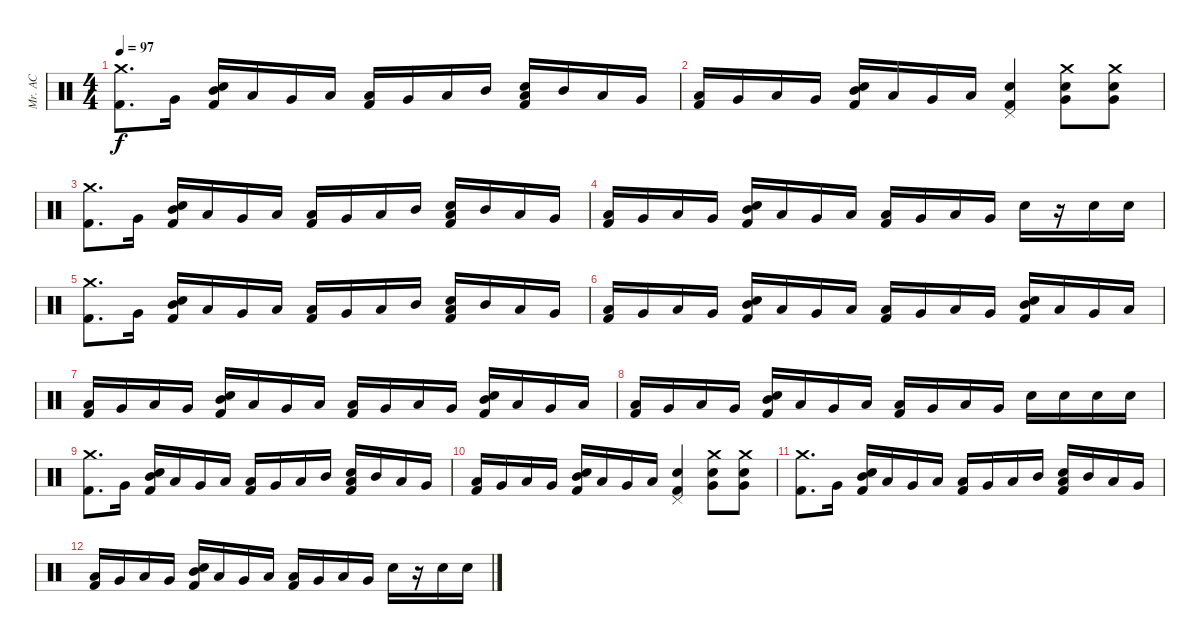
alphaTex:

\track ("Mr. AC" "Mr. AC") {instrument percussion}
\staff {score}
\articulation defaults
\ts (4 4)
\tempo 97
\clef neutral
\ks c
("Crash medium (hit)" "Kick (hit) 2").8{d dy f} "Very Low Tom (hit)".16 ("Snare (hit) 2" "Mid Tom (hit)" "Kick (hit) 2").16 "Low Floor Tom (hit)".16 "Very Low Tom (hit)".16 "Low Tom (hit)".16 ("Low Floor Tom (hit)" "Kick (hit) 2").16 "Very Low Tom (hit)".16 "Low Tom (hit)".16 "Mid Tom (hit)".16 ("Snare (hit) 2" "Low Tom (hit)" "Kick (hit) 2").16 "Mid Tom (hit)".16 "Low Tom (hit)".16 "Very Low Tom (hit)".16 |
("Low Floor Tom (hit)" "Kick (hit) 2").16 "Very Low Tom (hit)".16 "Low Tom (hit)".16 "Very Low Tom (hit)".16 ("Snare (hit) 2" "Mid Tom (hit)" "Kick (hit) 2").16 "Low Tom (hit)".16 "Very Low Tom (hit)".16 "Low Tom (hit)".16 ("Pedal Hi-Hat (hit)" "Snare (hit) 2" "Kick (hit) 2").4 ("Crash medium (hit)" "Very Low Tom (hit)" "Snare (hit) 2").8 ("Crash medium (hit)" "Very Low Tom (hit)" "Snare (hit) 2").8 |
("Crash medium (hit)" "Kick (hit) 2").8{d} "Very Low Tom (hit)".16 ("Snare (hit) 2" "Mid Tom (hit)" "Kick (hit) 2").16 "Low Floor Tom (hit)".16 "Very Low Tom (hit)".16 "Low Tom (hit)".16 ("Low Floor Tom (hit)" "Kick (hit) 2").16 "Very Low Tom (hit)".16 "Low Tom (hit)".16 "Mid Tom (hit)".16 ("Snare (hit) 2" "Low Tom (hit)" "Kick (hit) 2").16 "Mid Tom (hit)".16 "Low Tom (hit)".16 "Very Low Tom (hit)".16 |
("Low Floor Tom (hit)" "Kick (hit) 2").16 "Very Low Tom (hit)".16 "Low Tom (hit)".16 "Very Low Tom (hit)".16 ("Snare (hit) 2" "Mid Tom (hit)" "Kick (hit) 2").16 "Low Tom (hit)".16 "Very Low Tom (hit)".16 "Low Tom (hit)".16 ("Low Floor Tom (hit)" "Kick (hit) 2").16 "Very Low Tom (hit)".16 "Low Tom (hit)".16 "Very Low Tom (hit)".16 "Snare (hit) 2".16 r.16 "Snare (hit) 2".16 "Snare (hit) 2".16 |
("Crash medium (hit)" "Kick (hit) 2").8{d} "Very Low Tom (hit)".16 ("Snare (hit) 2" "Mid Tom (hit)" "Kick (hit) 2").16 "Low Floor Tom (hit)".16 "Very Low Tom (hit)".16 "Low Tom (hit)".16 ("Low Floor Tom (hit)" "Kick (hit) 2").16 "Very Low Tom (hit)".16 "Low Tom (hit)".16 "Mid Tom (hit)".16 ("Snare (hit) 2" "Low Tom (hit)" "Kick (hit) 2").16 "Mid Tom (hit)".16 "Low Tom (hit)".16 "Very Low Tom (hit)".16 |
("Low Floor Tom (hit)" "Kick (hit) 2").16 "Very Low Tom (hit)".16 "Low Tom (hit)".16 "Very Low Tom (hit)".16 ("Snare (hit) 2" "Mid Tom (hit)" "Kick (hit) 2").16 "Low Tom (hit)".16 "Very Low Tom (hit)".16 "Low Tom (hit)".16 ("Low Floor Tom (hit)" "Kick (hit) 2").16 "Very Low Tom (hit)".16 "Low Tom (hit)".16 "Very Low Tom (hit)".16 ("Snare (hit) 2" "Mid Tom (hit)" "Kick (hit) 2").16 "Low Tom (hit)".16 "Very Low Tom (hit)".16 "Low Tom (hit)".16 |
("Low Floor Tom (hit)" "Kick (hit) 2").16 "Very Low Tom (hit)".16 "Low Tom (hit)".16 "Very Low Tom (hit)".16 ("Snare (hit) 2" "Mid Tom (hit)" "Kick (hit) 2").16 "Low Tom (hit)".16 "Very Low Tom (hit)".16 "Low Tom (hit)".16 ("Low Floor Tom (hit)" "Kick (hit) 2").16 "Very Low Tom (hit)".16 "Low Tom (hit)".16 "Very Low Tom (hit)".16 ("Snare (hit) 2" "Mid Tom (hit)" "Kick (hit) 2").16 "Low Tom (hit)".16 "Very Low Tom (hit)".16 "Low Tom (hit)".16 |
("Low Floor Tom (hit)" "Kick (hit) 2").16 "Very Low Tom (hit)".16 "Low Tom (hit)".16 "Very Low Tom (hit)".16 ("Snare (hit) 2" "Mid Tom (hit)" "Kick (hit) 2").16 "Low Tom (hit)".16 "Very Low Tom (hit)".16 "Low Tom (hit)".16 ("Low Floor Tom (hit)" "Kick (hit) 2").16 "Very Low Tom (hit)".16 "Low Tom (hit)".16 "Very Low Tom (hit)".16 "Snare (hit) 2".16 "Snare (hit) 2".16 "Snare (hit) 2".16 "Snare (hit) 2".16 |
("Crash medium (hit)" "Kick (hit) 2").8{d} "Very Low Tom (hit)".16 ("Snare (hit) 2" "Mid Tom (hit)" "Kick (hit) 2").16 "Low Floor Tom (hit)".16 "Very Low Tom (hit)".16 "Low Tom (hit)".16 ("Low Floor Tom (hit)" "Kick (hit) 2").16 "Very Low Tom (hit)".16 "Low Tom (hit)".16 "Mid Tom (hit)".16 ("Snare (hit) 2" "Low Tom (hit)" "Kick (hit) 2").16 "Mid Tom (hit)".16 "Low Tom (hit)".16 "Very Low Tom (hit)".16 |
("Low Floor Tom (hit)" "Kick (hit) 2").16 "Very Low Tom (hit)".16 "Low Tom (hit)".16 "Very Low Tom (hit)".16 ("Snare (hit) 2" "Mid Tom (hit)" "Kick (hit) 2").16 "Low Tom (hit)".16 "Very Low Tom (hit)".16 "Low Tom (hit)".16 ("Pedal Hi-Hat (hit)" "Snare (hit) 2" "Kick (hit) 2").4 ("Crash medium (hit)" "Very Low Tom (hit)" "Snare (hit) 2").8 ("Crash medium (hit)" "Very Low Tom (hit)" "Snare (hit) 2").8 |
("Crash medium (hit)" "Kick (hit) 2").8{d} "Very Low Tom (hit)".16 ("Snare (hit) 2" "Mid Tom (hit)" "Kick (hit) 2").16 "Low Floor Tom (hit)".16 "Very Low Tom (hit)".16 "Low Tom (hit)".16 ("Low Floor Tom (hit)" "Kick (hit) 2").16 "Very Low Tom (hit)".16 "Low Tom (hit)".16 "Mid Tom (hit)".16 ("Snare (hit) 2" "Low Tom (hit)" "Kick (hit) 2").16 "Mid Tom (hit)".16 "Low Tom (hit)".16 "Very Low Tom (hit)".16 |
("Low Floor Tom (hit)" "Kick (hit) 2").16 "Very Low Tom (hit)".16 "Low Tom (hit)".16 "Very Low Tom (hit)".16 ("Snare (hit) 2" "Mid Tom (hit)" "Kick (hit) 2").16 "Low Tom (hit)".16 "Very Low Tom (hit)".16 "Low Tom (hit)".16 ("Low Floor Tom (hit)" "Kick (hit) 2").16 "Very Low Tom (hit)".16 "Low Tom (hit)".16 "Very Low Tom (hit)".16 "Snare (hit) 2".16 r.16 "Snare (hit) 2".16 "Snare (hit) 2".16
